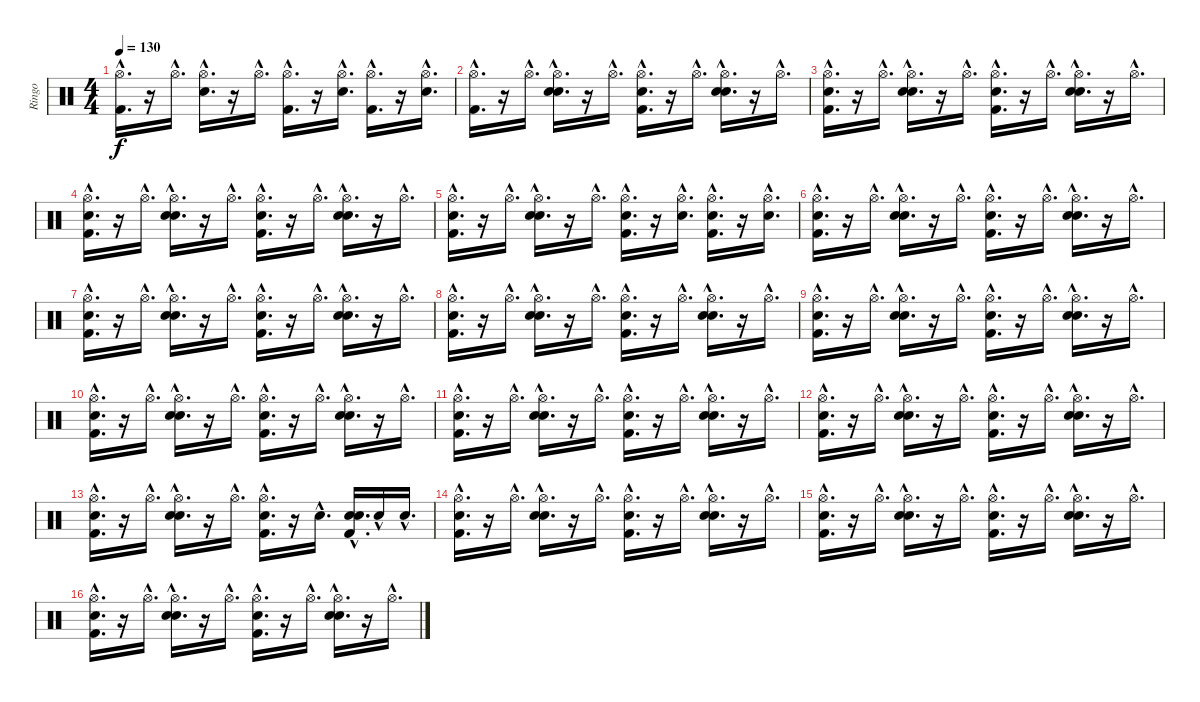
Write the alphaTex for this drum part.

\track ("Ringo" "Ringo") {instrument percussion}
\staff {score}
\articulation defaults
\ts (4 4)
\tempo 130
\clef neutral
\ks c
("Hi-Hat (open)"{hac} "Kick (hit) 2"{hac}).16{d dy f} r.16 "Hi-Hat (open)"{hac}.16{d} ("Hi-Hat (open)"{hac} "Snare (hit) 2"{hac}).16{d} r.16 "Hi-Hat (open)"{hac}.16{d} ("Hi-Hat (open)"{hac} "Kick (hit) 2"{hac}).16{d} r.16 ("Hi-Hat (open)"{hac} "Snare (hit) 2"{hac}).16{d} ("Hi-Hat (open)"{hac} "Kick (hit) 2"{hac}).16{d} r.16 ("Hi-Hat (open)"{hac} "Snare (hit) 2"{hac}).16{d} |
("Kick (hit) 2"{hac} "Hi-Hat (open)"{hac}).16{d} r.16 "Hi-Hat (open)"{hac}.16{d} ("Snare (hit) 2"{hac} "Hi-Hat (open)"{hac} "Hand Clap (hit)"{hac}).16{d} r.16 "Hi-Hat (open)"{hac}.16{d} ("Kick (hit) 2"{hac} "Hi-Hat (open)"{hac} "Hand Clap (hit)"{hac}).16{d} r.16 "Hi-Hat (open)"{hac}.16{d} ("Snare (hit) 2"{hac} "Hi-Hat (open)"{hac} "Hand Clap (hit)"{hac}).16{d} r.16 "Hi-Hat (open)"{hac}.16{d} |
("Hi-Hat (open)"{hac} "Kick (hit) 2"{hac} "Hand Clap (hit)"{hac}).16{d} r.16 "Hi-Hat (open)"{hac}.16{d} ("Hi-Hat (open)"{hac} "Snare (hit) 2"{hac} "Hand Clap (hit)"{hac}).16{d} r.16 "Hi-Hat (open)"{hac}.16{d} ("Hi-Hat (open)"{hac} "Kick (hit) 2"{hac} "Hand Clap (hit)"{hac}).16{d} r.16 "Hi-Hat (open)"{hac}.16{d} ("Hi-Hat (open)"{hac} "Snare (hit) 2"{hac} "Hand Clap (hit)"{hac}).16{d} r.16 "Hi-Hat (open)"{hac}.16{d} |
("Hi-Hat (open)"{hac} "Kick (hit) 2"{hac} "Hand Clap (hit)"{hac}).16{d} r.16 "Hi-Hat (open)"{hac}.16{d} ("Hi-Hat (open)"{hac} "Snare (hit) 2"{hac} "Hand Clap (hit)"{hac}).16{d} r.16 "Hi-Hat (open)"{hac}.16{d} ("Hi-Hat (open)"{hac} "Kick (hit) 2"{hac} "Hand Clap (hit)"{hac}).16{d} r.16 "Hi-Hat (open)"{hac}.16{d} ("Hi-Hat (open)"{hac} "Snare (hit) 2"{hac} "Hand Clap (hit)"{hac}).16{d} r.16 "Hi-Hat (open)"{hac}.16{d} |
("Hi-Hat (open)"{hac} "Kick (hit) 2"{hac} "Hand Clap (hit)"{hac}).16{d} r.16 "Hi-Hat (open)"{hac}.16{d} ("Hi-Hat (open)"{hac} "Snare (hit) 2"{hac} "Hand Clap (hit)"{hac}).16{d} r.16 "Hi-Hat (open)"{hac}.16{d} ("Hi-Hat (open)"{hac} "Kick (hit) 2"{hac} "Hand Clap (hit)"{hac}).16{d} r.16 ("Hi-Hat (open)"{hac} "Snare (hit) 2"{hac}).16{d} ("Hi-Hat (open)"{hac} "Kick (hit) 2"{hac} "Hand Clap (hit)"{hac}).16{d} r.16 ("Hi-Hat (open)"{hac} "Snare (hit) 2"{hac}).16{d} |
("Kick (hit) 2"{hac} "Hi-Hat (open)"{hac} "Hand Clap (hit)"{hac}).16{d} r.16 "Hi-Hat (open)"{hac}.16{d} ("Snare (hit) 2"{hac} "Hi-Hat (open)"{hac} "Hand Clap (hit)"{hac}).16{d} r.16 "Hi-Hat (open)"{hac}.16{d} ("Kick (hit) 2"{hac} "Hi-Hat (open)"{hac} "Hand Clap (hit)"{hac}).16{d} r.16 "Hi-Hat (open)"{hac}.16{d} ("Snare (hit) 2"{hac} "Hi-Hat (open)"{hac} "Hand Clap (hit)"{hac}).16{d} r.16 "Hi-Hat (open)"{hac}.16{d} |
("Hi-Hat (open)"{hac} "Kick (hit) 2"{hac} "Hand Clap (hit)"{hac}).16{d} r.16 "Hi-Hat (open)"{hac}.16{d} ("Hi-Hat (open)"{hac} "Snare (hit) 2"{hac} "Hand Clap (hit)"{hac}).16{d} r.16 "Hi-Hat (open)"{hac}.16{d} ("Hi-Hat (open)"{hac} "Kick (hit) 2"{hac} "Hand Clap (hit)"{hac}).16{d} r.16 "Hi-Hat (open)"{hac}.16{d} ("Hi-Hat (open)"{hac} "Snare (hit) 2"{hac} "Hand Clap (hit)"{hac}).16{d} r.16 "Hi-Hat (open)"{hac}.16{d} |
("Hi-Hat (open)"{hac} "Kick (hit) 2"{hac} "Hand Clap (hit)"{hac}).16{d} r.16 "Hi-Hat (open)"{hac}.16{d} ("Hi-Hat (open)"{hac} "Snare (hit) 2"{hac} "Hand Clap (hit)"{hac}).16{d} r.16 "Hi-Hat (open)"{hac}.16{d} ("Hi-Hat (open)"{hac} "Kick (hit) 2"{hac} "Hand Clap (hit)"{hac}).16{d} r.16 "Hi-Hat (open)"{hac}.16{d} ("Hi-Hat (open)"{hac} "Snare (hit) 2"{hac} "Hand Clap (hit)"{hac}).16{d} r.16 "Hi-Hat (open)"{hac}.16{d} |
("Hi-Hat (open)"{hac} "Kick (hit) 2"{hac} "Hand Clap (hit)"{hac}).16{d} r.16 "Hi-Hat (open)"{hac}.16{d} ("Hi-Hat (open)"{hac} "Snare (hit) 2"{hac} "Hand Clap (hit)"{hac}).16{d} r.16 "Hi-Hat (open)"{hac}.16{d} ("Hi-Hat (open)"{hac} "Kick (hit) 2"{hac} "Hand Clap (hit)"{hac}).16{d} r.16 "Hi-Hat (open)"{hac}.16{d} ("Hi-Hat (open)"{hac} "Snare (hit) 2"{hac} "Hand Clap (hit)"{hac}).16{d} r.16 "Hi-Hat (open)"{hac}.16{d} |
("Kick (hit) 2"{hac} "Hi-Hat (open)"{hac} "Hand Clap (hit)"{hac}).16{d} r.16 "Hi-Hat (open)"{hac}.16{d} ("Snare (hit) 2"{hac} "Hi-Hat (open)"{hac} "Hand Clap (hit)"{hac}).16{d} r.16 "Hi-Hat (open)"{hac}.16{d} ("Kick (hit) 2"{hac} "Hi-Hat (open)"{hac} "Hand Clap (hit)"{hac}).16{d} r.16 "Hi-Hat (open)"{hac}.16{d} ("Snare (hit) 2"{hac} "Hi-Hat (open)"{hac} "Hand Clap (hit)"{hac}).16{d} r.16 "Hi-Hat (open)"{hac}.16{d} |
("Hi-Hat (open)"{hac} "Kick (hit) 2"{hac} "Hand Clap (hit)"{hac}).16{d} r.16 "Hi-Hat (open)"{hac}.16{d} ("Hi-Hat (open)"{hac} "Snare (hit) 2"{hac} "Hand Clap (hit)"{hac}).16{d} r.16 "Hi-Hat (open)"{hac}.16{d} ("Hi-Hat (open)"{hac} "Kick (hit) 2"{hac} "Hand Clap (hit)"{hac}).16{d} r.16 "Hi-Hat (open)"{hac}.16{d} ("Hi-Hat (open)"{hac} "Snare (hit) 2"{hac} "Hand Clap (hit)"{hac}).16{d} r.16 "Hi-Hat (open)"{hac}.16{d} |
("Hi-Hat (open)"{hac} "Kick (hit) 2"{hac} "Hand Clap (hit)"{hac}).16{d} r.16 "Hi-Hat (open)"{hac}.16{d} ("Hi-Hat (open)"{hac} "Snare (hit) 2"{hac} "Hand Clap (hit)"{hac}).16{d} r.16 "Hi-Hat (open)"{hac}.16{d} ("Hi-Hat (open)"{hac} "Kick (hit) 2"{hac} "Hand Clap (hit)"{hac}).16{d} r.16 "Hi-Hat (open)"{hac}.16{d} ("Hi-Hat (open)"{hac} "Snare (hit) 2"{hac} "Hand Clap (hit)"{hac}).16{d} r.16 "Hi-Hat (open)"{hac}.16{d} |
("Hi-Hat (open)"{hac} "Kick (hit) 2"{hac} "Hand Clap (hit)"{hac}).16{d} r.16 "Hi-Hat (open)"{hac}.16{d} ("Hi-Hat (open)"{hac} "Snare (hit) 2"{hac} "Hand Clap (hit)"{hac}).16{d} r.16 "Hi-Hat (open)"{hac}.16{d} ("Hi-Hat (open)"{hac} "Kick (hit) 2"{hac} "Hand Clap (hit)"{hac}).16{d} r.16 "Snare (hit) 2"{hac}.16{d} ("Snare (hit) 2"{hac} "Kick (hit) 2"{hac} "Hand Clap (hit)"{hac}).16{d} "Snare (hit) 2"{hac}.16 "Snare (hit) 2"{hac}.16{d} |
("Hi-Hat (open)"{hac} "Kick (hit) 2"{hac} "Hand Clap (hit)"{hac}).16{d} r.16 "Hi-Hat (open)"{hac}.16{d} ("Hi-Hat (open)"{hac} "Snare (hit) 2"{hac} "Hand Clap (hit)"{hac}).16{d} r.16 "Hi-Hat (open)"{hac}.16{d} ("Hi-Hat (open)"{hac} "Kick (hit) 2"{hac} "Hand Clap (hit)"{hac}).16{d} r.16 "Hi-Hat (open)"{hac}.16{d} ("Hi-Hat (open)"{hac} "Snare (hit) 2"{hac} "Hand Clap (hit)"{hac}).16{d} r.16 "Hi-Hat (open)"{hac}.16{d} |
("Kick (hit) 2"{hac} "Hi-Hat (open)"{hac} "Hand Clap (hit)"{hac}).16{d} r.16 "Hi-Hat (open)"{hac}.16{d} ("Snare (hit) 2"{hac} "Hi-Hat (open)"{hac} "Hand Clap (hit)"{hac}).16{d} r.16 "Hi-Hat (open)"{hac}.16{d} ("Kick (hit) 2"{hac} "Hi-Hat (open)"{hac} "Hand Clap (hit)"{hac}).16{d} r.16 "Hi-Hat (open)"{hac}.16{d} ("Snare (hit) 2"{hac} "Hi-Hat (open)"{hac} "Hand Clap (hit)"{hac}).16{d} r.16 "Hi-Hat (open)"{hac}.16{d} |
("Kick (hit) 2"{hac} "Hi-Hat (open)"{hac} "Hand Clap (hit)"{hac}).16{d} r.16 "Hi-Hat (open)"{hac}.16{d} ("Snare (hit) 2"{hac} "Hi-Hat (open)"{hac} "Hand Clap (hit)"{hac}).16{d} r.16 "Hi-Hat (open)"{hac}.16{d} ("Kick (hit) 2"{hac} "Hi-Hat (open)"{hac} "Hand Clap (hit)"{hac}).16{d} r.16 "Hi-Hat (open)"{hac}.16{d} ("Snare (hit) 2"{hac} "Hi-Hat (open)"{hac} "Hand Clap (hit)"{hac}).16{d} r.16 "Hi-Hat (open)"{hac}.16{d}
